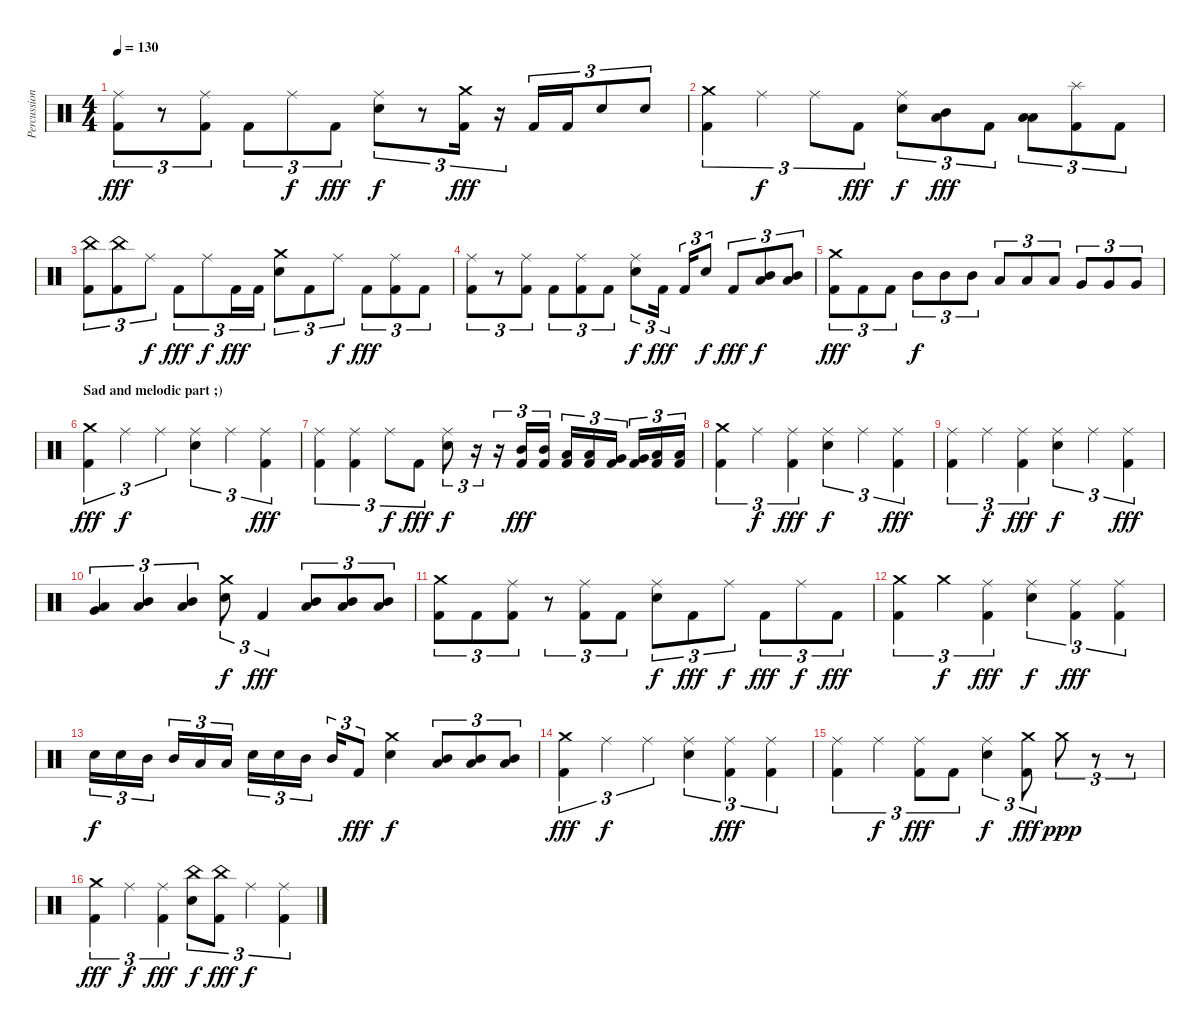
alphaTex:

\track ("Percussion" "Percussion") {instrument percussion}
\staff {score}
\articulation defaults
\ts (4 4)
\tempo 130
\clef neutral
\ks c
("Ride (middle)" "Kick (hit) 2").8{tu (3 2) dy fff} r.8{tu (3 2)} ("Ride (middle)" "Kick (hit) 2").8{tu (3 2)} "Kick (hit) 2".8{tu (3 2)} "Ride (middle)".8{tu (3 2) dy f} "Kick (hit) 2".8{tu (3 2) dy fff} ("Ride (middle)" "Electric Snare (hit)").8{tu (3 2) dy f} r.8{tu (3 2)} ("Crash medium (hit)" "Kick (hit) 2").16{tu (3 2) dy fff} r.16{tu (3 2)} "Kick (hit) 2".16{tu (3 2)} "Kick (hit) 2".16{tu (3 2)} "Electric Snare (hit)".8{tu (3 2)} "Electric Snare (hit)".8{tu (3 2)} |
("Crash medium (hit)" "Kick (hit) 2").4{tu (3 2)} "Ride (middle)".4{tu (3 2) dy f} "Ride (middle)".8{tu (3 2)} "Kick (hit) 2".8{tu (3 2) dy fff} ("Ride (middle)" "Electric Snare (hit)").8{tu (3 2) dy f} ("Mid Tom (hit)" "Low Floor Tom (hit)").8{tu (3 2) dy fff} "Kick (hit) 2".8{tu (3 2)} ("Low Tom (hit)" "Low Floor Tom (hit)").8{tu (3 2)} ("Splash (hit)" "Kick (hit) 2").8{tu (3 2)} "Kick (hit) 2".8{tu (3 2)} |
("China (hit)" "Kick (hit) 2").8{tu (3 2)} ("China (hit)" "Kick (hit) 2").8{tu (3 2)} "Ride (middle)".8{tu (3 2) dy f} "Kick (hit) 2".8{tu (3 2) dy fff} "Ride (middle)".8{tu (3 2) dy f} "Kick (hit) 2".16{tu (3 2) dy fff} "Kick (hit) 2".16{tu (3 2)} ("Crash medium (hit)" "Electric Snare (hit)").8{tu (3 2)} "Kick (hit) 2".8{tu (3 2)} "Ride (middle)".8{tu (3 2) dy f} "Kick (hit) 2".8{tu (3 2) dy fff} ("Ride (middle)" "Kick (hit) 2").8{tu (3 2)} "Kick (hit) 2".8{tu (3 2)} |
("Ride (middle)" "Kick (hit) 2").8{tu (3 2)} r.8{tu (3 2)} ("Ride (middle)" "Kick (hit) 2").8{tu (3 2)} "Kick (hit) 2".8{tu (3 2)} ("Ride (middle)" "Kick (hit) 2").8{tu (3 2)} "Kick (hit) 2".8{tu (3 2)} ("Ride (middle)" "Electric Snare (hit)").8{tu (3 2) dy f} "Kick (hit) 2".16{tu (3 2) dy fff} "Kick (hit) 2".16{tu (3 2)} "Electric Snare (hit)".8{tu (3 2) dy f} "Kick (hit) 2".8{tu (3 2) dy fff} ("Mid Tom (hit)" "Low Tom (hit)").8{tu (3 2) dy f} ("Mid Tom (hit)" "Low Tom (hit)").8{tu (3 2)} |
("Crash medium (hit)" "Kick (hit) 2").8{tu (3 2) dy fff} "Kick (hit) 2".8{tu (3 2)} "Kick (hit) 2".8{tu (3 2)} "Mid Tom (hit)".8{tu (3 2) dy f} "Mid Tom (hit)".8{tu (3 2)} "Mid Tom (hit)".8{tu (3 2)} "Low Tom (hit)".8{tu (3 2)} "Low Tom (hit)".8{tu (3 2)} "Low Tom (hit)".8{tu (3 2)} "Very Low Tom (hit)".8{tu (3 2)} "Very Low Tom (hit)".8{tu (3 2)} "Very Low Tom (hit)".8{tu (3 2)} |
\section ("" "Sad and melodic part ;)")
("Crash medium (hit)" "Kick (hit) 2").4{tu (3 2) dy fff} "Ride (middle)".4{tu (3 2) dy f} "Ride (middle)".4{tu (3 2)} ("Ride (middle)" "Electric Snare (hit)").4{tu (3 2)} "Ride (middle)".4{tu (3 2)} ("Ride (middle)" "Kick (hit) 2").4{tu (3 2) dy fff} |
("Ride (middle)" "Kick (hit) 2").4{tu (3 2)} ("Ride (middle)" "Kick (hit) 2").4{tu (3 2)} "Ride (middle)".8{tu (3 2) dy f} "Kick (hit) 2".8{tu (3 2) dy fff} ("Ride (middle)" "Electric Snare (hit)").8{tu (3 2) dy f} r.16{tu (3 2)} r.16{tu (3 2)} ("Mid Tom (hit)" "Kick (hit) 2").16{tu (3 2) dy fff} ("Mid Tom (hit)" "Kick (hit) 2").16{tu (3 2)} ("Low Tom (hit)" "Kick (hit) 2").16{tu (3 2)} ("Low Tom (hit)" "Kick (hit) 2").16{tu (3 2)} ("Very Low Tom (hit)" "Kick (hit) 2").16{tu (3 2)} ("Very Low Tom (hit)" "Kick (hit) 2").16{tu (3 2)} ("Low Floor Tom (hit)" "Kick (hit) 2").16{tu (3 2)} ("Low Floor Tom (hit)" "Kick (hit) 2").16{tu (3 2)} |
("Crash medium (hit)" "Kick (hit) 2").4{tu (3 2)} "Ride (middle)".4{tu (3 2) dy f} ("Ride (middle)" "Kick (hit) 2").4{tu (3 2) dy fff} ("Ride (middle)" "Electric Snare (hit)").4{tu (3 2) dy f} "Ride (middle)".4{tu (3 2)} ("Ride (middle)" "Kick (hit) 2").4{tu (3 2) dy fff} |
("Ride (middle)" "Kick (hit) 2").4{tu (3 2)} "Ride (middle)".4{tu (3 2) dy f} ("Ride (middle)" "Kick (hit) 2").4{tu (3 2) dy fff} ("Ride (middle)" "Electric Snare (hit)").4{tu (3 2) dy f} "Ride (middle)".4{tu (3 2)} ("Ride (middle)" "Kick (hit) 2").4{tu (3 2) dy fff} |
("Low Tom (hit)" "Very Low Tom (hit)").4{tu (3 2)} ("Mid Tom (hit)" "Low Tom (hit)").4{tu (3 2)} ("Mid Tom (hit)" "Low Tom (hit)").4{tu (3 2)} ("Crash medium (hit)" "Electric Snare (hit)").8{tu (3 2) dy f} "Kick (hit) 2".4{tu (3 2) dy fff} ("Mid Tom (hit)" "Low Tom (hit)").8{tu (3 2)} ("Mid Tom (hit)" "Low Tom (hit)").8{tu (3 2)} ("Mid Tom (hit)" "Low Tom (hit)").8{tu (3 2)} |
("Crash medium (hit)" "Kick (hit) 2").8{tu (3 2)} "Kick (hit) 2".8{tu (3 2)} ("Ride (middle)" "Kick (hit) 2").8{tu (3 2)} r.8{tu (3 2)} ("Ride (middle)" "Kick (hit) 2").8{tu (3 2)} "Kick (hit) 2".8{tu (3 2)} ("Ride (middle)" "Electric Snare (hit)").8{tu (3 2) dy f} "Kick (hit) 2".8{tu (3 2) dy fff} "Ride (middle)".8{tu (3 2) dy f} "Kick (hit) 2".8{tu (3 2) dy fff} "Ride (middle)".8{tu (3 2) dy f} "Kick (hit) 2".8{tu (3 2) dy fff} |
("Crash medium (hit)" "Kick (hit) 2").4{tu (3 2)} "Crash medium (hit)".4{tu (3 2) dy f} ("Ride (middle)" "Kick (hit) 2").4{tu (3 2) dy fff} ("Ride (middle)" "Electric Snare (hit)").4{tu (3 2) dy f} ("Ride (middle)" "Kick (hit) 2").4{tu (3 2) dy fff} ("Ride (middle)" "Kick (hit) 2").4{tu (3 2)} |
"Electric Snare (hit)".16{tu (3 2) dy f} "Electric Snare (hit)".16{tu (3 2)} "Mid Tom (hit)".16{tu (3 2)} "Mid Tom (hit)".16{tu (3 2)} "Low Tom (hit)".16{tu (3 2)} "Low Tom (hit)".16{tu (3 2)} "Electric Snare (hit)".16{tu (3 2)} "Electric Snare (hit)".16{tu (3 2)} "Mid Tom (hit)".16{tu (3 2)} "Mid Tom (hit)".16{tu (3 2)} "Kick (hit) 2".8{tu (3 2) dy fff} ("Crash medium (hit)" "Electric Snare (hit)").4{dy f} ("Mid Tom (hit)" "Low Tom (hit)").8{tu (3 2)} ("Mid Tom (hit)" "Low Tom (hit)").8{tu (3 2)} ("Mid Tom (hit)" "Low Tom (hit)").8{tu (3 2)} |
("Crash medium (hit)" "Kick (hit) 2").4{tu (3 2) dy fff} "Ride (middle)".4{tu (3 2) dy f} "Ride (middle)".4{tu (3 2)} ("Ride (middle)" "Electric Snare (hit)").4{tu (3 2)} ("Ride (middle)" "Kick (hit) 2").4{tu (3 2) dy fff} ("Ride (middle)" "Kick (hit) 2").4{tu (3 2)} |
("Ride (middle)" "Kick (hit) 2").4{tu (3 2)} "Ride (middle)".4{tu (3 2) dy f} ("Ride (middle)" "Kick (hit) 2").8{tu (3 2) dy fff} "Kick (hit) 2".8{tu (3 2)} ("Ride (middle)" "Electric Snare (hit)").4{tu (3 2) dy f} ("Crash medium (hit)" "Kick (hit) 2").8{tu (3 2) dy fff} "Crash medium (hit)".8{tu (3 2) dy ppp} r.8{tu (3 2)} r.8{tu (3 2)} |
("Crash medium (hit)" "Kick (hit) 2").4{tu (3 2) dy fff} "Ride (middle)".4{tu (3 2) dy f} ("Ride (middle)" "Kick (hit) 2").4{tu (3 2) dy fff} ("China (hit)" "Electric Snare (hit)").8{tu (3 2) dy f} ("China (hit)" "Kick (hit) 2").8{tu (3 2) dy fff} "Ride (middle)".4{tu (3 2) dy f} ("Ride (middle)" "Kick (hit) 2").4{tu (3 2)}
